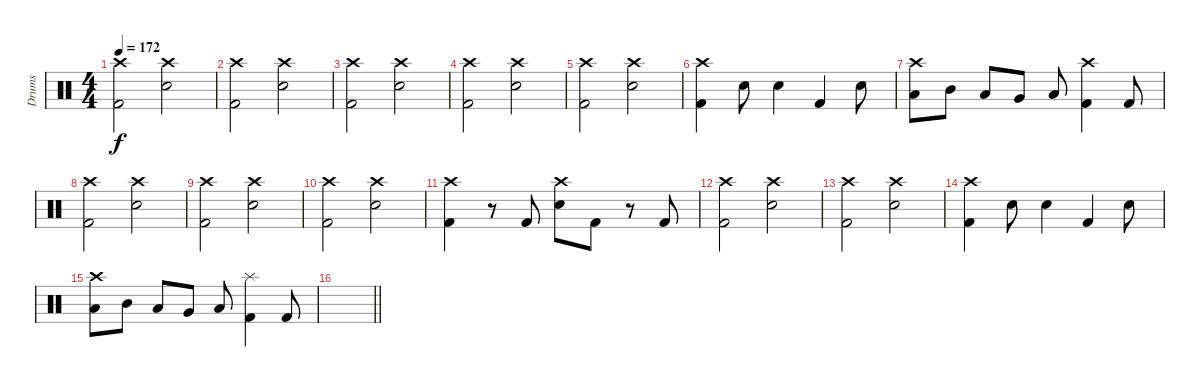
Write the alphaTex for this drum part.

\track ("Drums" "Drums") {instrument percussion}
\staff {score}
\articulation defaults
\ts (4 4)
\tempo 172
\clef neutral
\ks c
("Crash high (hit)" "Kick (hit) 2").2{dy f} ("Crash high (hit)" "Electric Snare (hit)").2 |
("Crash high (hit)" "Kick (hit) 2").2 ("Crash high (hit)" "Electric Snare (hit)").2 |
("Crash high (hit)" "Kick (hit) 2").2 ("Crash high (hit)" "Electric Snare (hit)").2 |
("Crash high (hit)" "Kick (hit) 2").2 ("Crash high (hit)" "Electric Snare (hit)").2 |
("Crash high (hit)" "Kick (hit) 2").2 ("Crash high (hit)" "Electric Snare (hit)").2 |
("Crash high (hit)" "Kick (hit) 2").4 "Electric Snare (hit)".8 "Electric Snare (hit)".4 "Kick (hit) 2".4 "Electric Snare (hit)".8 |
("Crash high (hit)" "Low Tom (hit)").8 "Mid Tom (hit)".8 "Low Tom (hit)".8 "Very Low Tom (hit)".8 "Low Floor Tom (hit)".8 ("Crash high (hit)" "Kick (hit) 2").4 "Kick (hit) 2".8 |
("Crash high (hit)" "Kick (hit) 2").2 ("Crash high (hit)" "Electric Snare (hit)").2 |
("Crash high (hit)" "Kick (hit) 2").2 ("Crash high (hit)" "Electric Snare (hit)").2 |
("Crash high (hit)" "Kick (hit) 2").2 ("Crash high (hit)" "Electric Snare (hit)").2 |
("Crash high (hit)" "Kick (hit) 2").4 r.8 "Kick (hit) 2".8 ("Crash high (hit)" "Electric Snare (hit)").8 "Kick (hit) 2".8 r.8 "Kick (hit) 2".8 |
("Crash high (hit)" "Kick (hit) 2").2 ("Crash high (hit)" "Electric Snare (hit)").2 |
("Crash high (hit)" "Kick (hit) 2").2 ("Crash high (hit)" "Electric Snare (hit)").2 |
("Crash high (hit)" "Kick (hit) 2").4 "Electric Snare (hit)".8 "Electric Snare (hit)".4 "Kick (hit) 2".4 "Electric Snare (hit)".8 |
("Crash high (hit)" "Low Tom (hit)").8 "Mid Tom (hit)".8 "Low Tom (hit)".8 "Very Low Tom (hit)".8 "Low Floor Tom (hit)".8 ("Splash (hit)" "Kick (hit) 2").4 "Kick (hit) 2".8 |
\barLineRight lightlight
